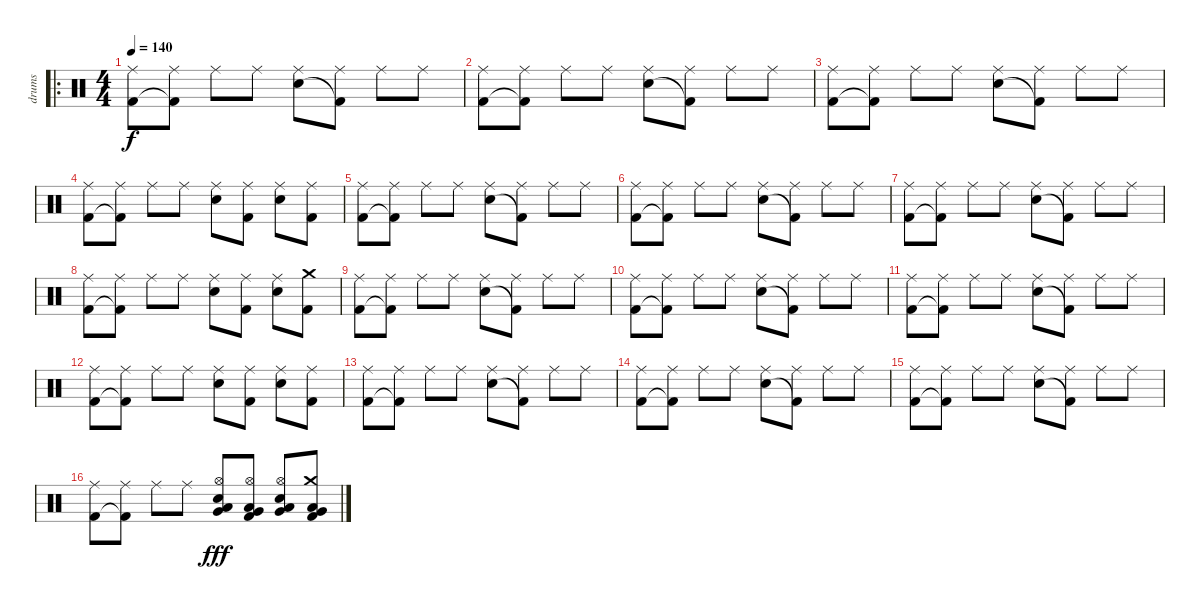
\track ("drums" "drums") {instrument percussion}
\staff {score}
\articulation defaults
\ro
\ts (4 4)
\tempo 140
\clef neutral
\ks c
("Ride (middle)" "Kick (hit) 2").8{dy f} ("Ride (middle)" "Kick (hit) 2"{t}).8 "Ride (middle)".8 "Ride (middle)".8 ("Ride (middle)" "Snare (hit) 2").8 ("Ride (middle)" "Kick (hit) 2"{t}).8 "Ride (middle)".8 "Ride (middle)".8 |
("Ride (middle)" "Kick (hit) 2").8 ("Ride (middle)" "Kick (hit) 2"{t}).8 "Ride (middle)".8 "Ride (middle)".8 ("Ride (middle)" "Snare (hit) 2").8 ("Ride (middle)" "Kick (hit) 2"{t}).8 "Ride (middle)".8 "Ride (middle)".8 |
("Ride (middle)" "Kick (hit) 2").8 ("Ride (middle)" "Kick (hit) 2"{t}).8 "Ride (middle)".8 "Ride (middle)".8 ("Ride (middle)" "Snare (hit) 2").8 ("Ride (middle)" "Kick (hit) 2"{t}).8 "Ride (middle)".8 "Ride (middle)".8 |
("Ride (middle)" "Kick (hit) 2").8 ("Ride (middle)" "Kick (hit) 2"{t}).8 "Ride (middle)".8 "Ride (middle)".8 ("Ride (middle)" "Snare (hit) 2").8 ("Ride (middle)" "Kick (hit) 2").8 ("Ride (middle)" "Snare (hit) 2").8 ("Ride (middle)" "Kick (hit) 2").8 |
("Ride (middle)" "Kick (hit) 2").8 ("Ride (middle)" "Kick (hit) 2"{t}).8 "Ride (middle)".8 "Ride (middle)".8 ("Ride (middle)" "Snare (hit) 2").8 ("Ride (middle)" "Kick (hit) 2"{t}).8 "Ride (middle)".8 "Ride (middle)".8 |
("Ride (middle)" "Kick (hit) 2").8 ("Ride (middle)" "Kick (hit) 2"{t}).8 "Ride (middle)".8 "Ride (middle)".8 ("Ride (middle)" "Snare (hit) 2").8 ("Ride (middle)" "Kick (hit) 2"{t}).8 "Ride (middle)".8 "Ride (middle)".8 |
("Ride (middle)" "Kick (hit) 2").8 ("Ride (middle)" "Kick (hit) 2"{t}).8 "Ride (middle)".8 "Ride (middle)".8 ("Ride (middle)" "Snare (hit) 2").8 ("Ride (middle)" "Kick (hit) 2"{t}).8 "Ride (middle)".8 "Ride (middle)".8 |
("Ride (middle)" "Kick (hit) 2").8 ("Ride (middle)" "Kick (hit) 2"{t}).8 "Ride (middle)".8 "Ride (middle)".8 ("Ride (middle)" "Snare (hit) 2").8 ("Ride (middle)" "Kick (hit) 2").8 ("Ride (middle)" "Snare (hit) 2").8 ("Crash medium (hit)" "Kick (hit) 2").8 |
("Ride (middle)" "Kick (hit) 2").8 ("Ride (middle)" "Kick (hit) 2"{t}).8 "Ride (middle)".8 "Ride (middle)".8 ("Ride (middle)" "Snare (hit) 2").8 ("Ride (middle)" "Kick (hit) 2"{t}).8 "Ride (middle)".8 "Ride (middle)".8 |
("Ride (middle)" "Kick (hit) 2").8 ("Ride (middle)" "Kick (hit) 2"{t}).8 "Ride (middle)".8 "Ride (middle)".8 ("Ride (middle)" "Snare (hit) 2").8 ("Ride (middle)" "Kick (hit) 2"{t}).8 "Ride (middle)".8 "Ride (middle)".8 |
("Ride (middle)" "Kick (hit) 2").8 ("Ride (middle)" "Kick (hit) 2"{t}).8 "Ride (middle)".8 "Ride (middle)".8 ("Ride (middle)" "Snare (hit) 2").8 ("Ride (middle)" "Kick (hit) 2"{t}).8 "Ride (middle)".8 "Ride (middle)".8 |
("Ride (middle)" "Kick (hit) 2").8 ("Ride (middle)" "Kick (hit) 2"{t}).8 "Ride (middle)".8 "Ride (middle)".8 ("Ride (middle)" "Snare (hit) 2").8 ("Ride (middle)" "Kick (hit) 2").8 ("Ride (middle)" "Snare (hit) 2").8 ("Ride (middle)" "Kick (hit) 2").8 |
("Ride (middle)" "Kick (hit) 2").8 ("Ride (middle)" "Kick (hit) 2"{t}).8 "Ride (middle)".8 "Ride (middle)".8 ("Ride (middle)" "Snare (hit) 2").8 ("Ride (middle)" "Kick (hit) 2"{t}).8 "Ride (middle)".8 "Ride (middle)".8 |
("Ride (middle)" "Kick (hit) 2").8 ("Ride (middle)" "Kick (hit) 2"{t}).8 "Ride (middle)".8 "Ride (middle)".8 ("Ride (middle)" "Snare (hit) 2").8 ("Ride (middle)" "Kick (hit) 2"{t}).8 "Ride (middle)".8 "Ride (middle)".8 |
("Ride (middle)" "Kick (hit) 2").8 ("Ride (middle)" "Kick (hit) 2"{t}).8 "Ride (middle)".8 "Ride (middle)".8 ("Ride (middle)" "Snare (hit) 2").8 ("Ride (middle)" "Kick (hit) 2"{t}).8 "Ride (middle)".8 "Ride (middle)".8 |
("Ride (middle)" "Kick (hit) 2").8 ("Ride (middle)" "Kick (hit) 2"{t}).8 "Ride (middle)".8 "Ride (middle)".8 ("Hi-Hat (open)" "Low Tom (hit)" "Very Low Tom (hit)" "Snare (hit) 2").8{dy fff} ("Hi-Hat (open)" "Low Tom (hit)" "Very Low Tom (hit)" "Kick (hit) 2").8 ("Hi-Hat (open)" "Low Tom (hit)" "Very Low Tom (hit)" "Snare (hit) 2").8 ("Crash medium (hit)" "Low Tom (hit)" "Very Low Tom (hit)" "Kick (hit) 2").8
